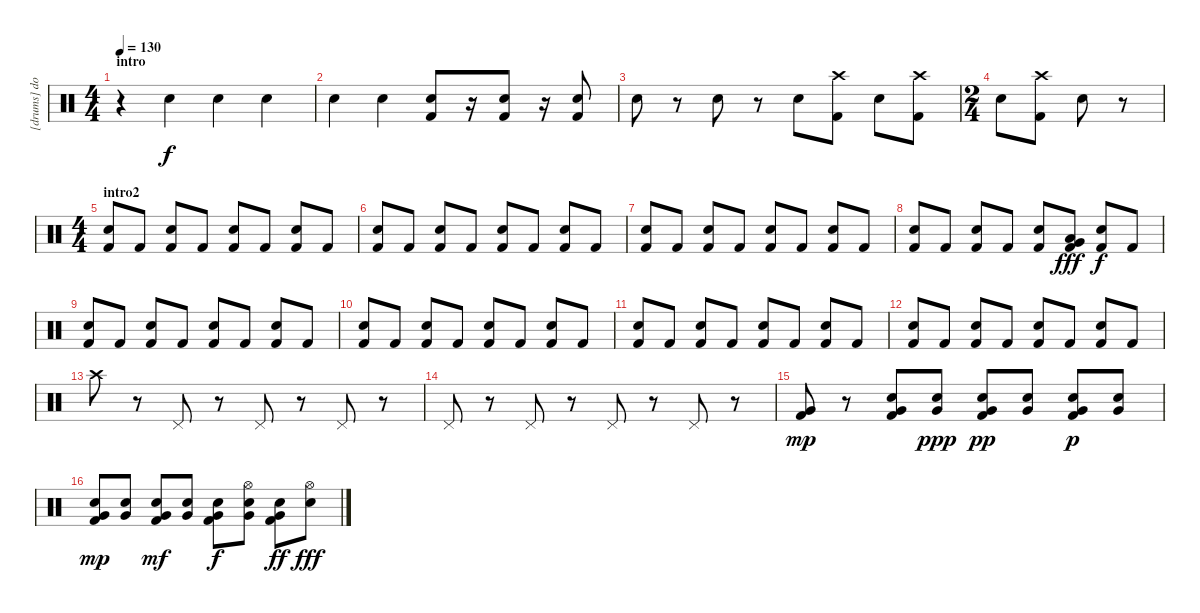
\track ("[drums] dom" "[drums] do") {instrument percussion}
\staff {score}
\articulation defaults
\ts (4 4)
\section ("" "intro")
\tempo 130
\clef neutral
\ks c
r.4{dy f} "Snare (hit) 2".4 "Snare (hit) 2".4 "Snare (hit) 2".4 |
"Snare (hit) 2".4 "Snare (hit) 2".4 ("Snare (hit) 2" "Kick (hit) 2").8 r.16 ("Snare (hit) 2" "Kick (hit) 2").8 r.16 ("Snare (hit) 2" "Kick (hit) 2").8 |
"Snare (hit) 2".8 r.8 "Snare (hit) 2".8 r.8 "Snare (hit) 2".8 ("Crash high (hit)" "Kick (hit) 2").8 "Snare (hit) 2".8 ("Crash high (hit)" "Kick (hit) 2").8 |
\ts (2 4)
"Snare (hit) 2".8 ("Crash high (hit)" "Kick (hit) 2").8 "Snare (hit) 2".8 r.8 |
\ts (4 4)
\section ("" "intro2")
("Snare (hit) 2" "Kick (hit) 2").8 "Kick (hit) 2".8 ("Snare (hit) 2" "Kick (hit) 2").8 "Kick (hit) 2".8 ("Snare (hit) 2" "Kick (hit) 2").8 "Kick (hit) 2".8 ("Snare (hit) 2" "Kick (hit) 2").8 "Kick (hit) 2".8 |
("Snare (hit) 2" "Kick (hit) 2").8 "Kick (hit) 2".8 ("Snare (hit) 2" "Kick (hit) 2").8 "Kick (hit) 2".8 ("Snare (hit) 2" "Kick (hit) 2").8 "Kick (hit) 2".8 ("Snare (hit) 2" "Kick (hit) 2").8 "Kick (hit) 2".8 |
("Snare (hit) 2" "Kick (hit) 2").8 "Kick (hit) 2".8 ("Snare (hit) 2" "Kick (hit) 2").8 "Kick (hit) 2".8 ("Snare (hit) 2" "Kick (hit) 2").8 "Kick (hit) 2".8 ("Snare (hit) 2" "Kick (hit) 2").8 "Kick (hit) 2".8 |
("Snare (hit) 2" "Kick (hit) 2").8 "Kick (hit) 2".8 ("Snare (hit) 2" "Kick (hit) 2").8 "Kick (hit) 2".8 ("Snare (hit) 2" "Kick (hit) 2").8 ("Low Floor Tom (hit)" "Very Low Tom (hit)" "Kick (hit) 2").8{dy fff} ("Snare (hit) 2" "Kick (hit) 2").8{dy f} "Kick (hit) 2".8 |
("Snare (hit) 2" "Kick (hit) 2").8 "Kick (hit) 2".8 ("Snare (hit) 2" "Kick (hit) 2").8 "Kick (hit) 2".8 ("Snare (hit) 2" "Kick (hit) 2").8 "Kick (hit) 2".8 ("Snare (hit) 2" "Kick (hit) 2").8 "Kick (hit) 2".8 |
("Snare (hit) 2" "Kick (hit) 2").8 "Kick (hit) 2".8 ("Snare (hit) 2" "Kick (hit) 2").8 "Kick (hit) 2".8 ("Snare (hit) 2" "Kick (hit) 2").8 "Kick (hit) 2".8 ("Snare (hit) 2" "Kick (hit) 2").8 "Kick (hit) 2".8 |
("Snare (hit) 2" "Kick (hit) 2").8 "Kick (hit) 2".8 ("Snare (hit) 2" "Kick (hit) 2").8 "Kick (hit) 2".8 ("Snare (hit) 2" "Kick (hit) 2").8 "Kick (hit) 2".8 ("Snare (hit) 2" "Kick (hit) 2").8 "Kick (hit) 2".8 |
("Snare (hit) 2" "Kick (hit) 2").8 "Kick (hit) 2".8 ("Snare (hit) 2" "Kick (hit) 2").8 "Kick (hit) 2".8 ("Snare (hit) 2" "Kick (hit) 2").8 "Kick (hit) 2".8 ("Snare (hit) 2" "Kick (hit) 2").8 "Kick (hit) 2".8 |
"Crash high (hit)".8 r.8 "Pedal Hi-Hat (hit)".8 r.8 "Pedal Hi-Hat (hit)".8 r.8 "Pedal Hi-Hat (hit)".8 r.8 |
"Pedal Hi-Hat (hit)".8 r.8 "Pedal Hi-Hat (hit)".8 r.8 "Pedal Hi-Hat (hit)".8 r.8 "Pedal Hi-Hat (hit)".8 r.8 |
("Very Low Tom (hit)" "Kick (hit) 2").8{dy mp} r.8 ("Very Low Tom (hit)" "Snare (hit) 2" "Kick (hit) 2").8 ("Very Low Tom (hit)" "Snare (hit) 2").8{dy ppp} ("Very Low Tom (hit)" "Snare (hit) 2" "Kick (hit) 2").8{dy pp} ("Very Low Tom (hit)" "Snare (hit) 2").8 ("Very Low Tom (hit)" "Snare (hit) 2" "Kick (hit) 2").8{dy p} ("Very Low Tom (hit)" "Snare (hit) 2").8 |
("Very Low Tom (hit)" "Snare (hit) 2" "Kick (hit) 2").8{dy mp} ("Very Low Tom (hit)" "Snare (hit) 2").8 ("Very Low Tom (hit)" "Snare (hit) 2" "Kick (hit) 2").8{dy mf} ("Very Low Tom (hit)" "Snare (hit) 2").8 ("Very Low Tom (hit)" "Snare (hit) 2" "Kick (hit) 2").8{dy f} ("Very Low Tom (hit)" "Snare (hit) 2" "Hi-Hat (open)").8 ("Very Low Tom (hit)" "Snare (hit) 2" "Kick (hit) 2").8{dy ff} ("Snare (hit) 2" "Hi-Hat (open)").8{dy fff}
